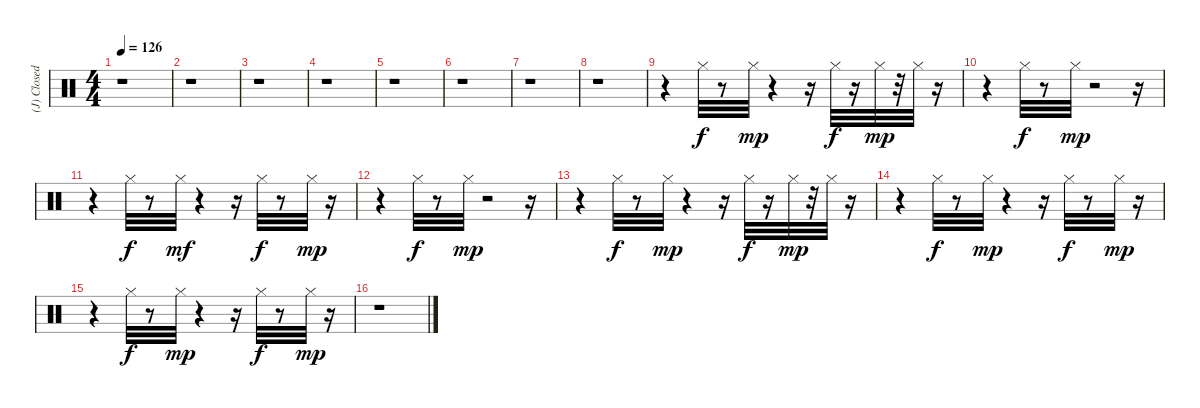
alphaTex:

\track ("(J) Closed Hi Hat" "(J) Closed") {instrument percussion}
\staff {score}
\articulation defaults
\ts (4 4)
\tempo 126
\clef neutral
\ks c
r.1{dy f} |
r.1 |
r.1 |
r.1 |
r.1 |
r.1 |
r.1 |
r.1 |
r.4 "Hi-Hat (closed)".32 r.8 "Hi-Hat (closed)".32{dy mp} r.4 r.16 "Hi-Hat (closed)".32{dy f} r.16 "Hi-Hat (closed)".32{dy mp} r.32 "Hi-Hat (closed)".32 r.16 |
r.4 "Hi-Hat (closed)".32{dy f} r.8 "Hi-Hat (closed)".32{dy mp} r.2 r.16 |
r.4 "Hi-Hat (closed)".32{dy f} r.8 "Hi-Hat (closed)".32{dy mf} r.4 r.16 "Hi-Hat (closed)".32{dy f} r.8 "Hi-Hat (closed)".32{dy mp} r.16 |
r.4 "Hi-Hat (closed)".32{dy f} r.8 "Hi-Hat (closed)".32{dy mp} r.2 r.16 |
r.4 "Hi-Hat (closed)".32{dy f} r.8 "Hi-Hat (closed)".32{dy mp} r.4 r.16 "Hi-Hat (closed)".32{dy f} r.16 "Hi-Hat (closed)".32{dy mp} r.32 "Hi-Hat (closed)".32 r.16 |
r.4 "Hi-Hat (closed)".32{dy f} r.8 "Hi-Hat (closed)".32{dy mp} r.4 r.16 "Hi-Hat (closed)".32{dy f} r.8 "Hi-Hat (closed)".32{dy mp} r.16 |
r.4 "Hi-Hat (closed)".32{dy f} r.8 "Hi-Hat (closed)".32{dy mp} r.4 r.16 "Hi-Hat (closed)".32{dy f} r.8 "Hi-Hat (closed)".32{dy mp} r.16 |
r.1
